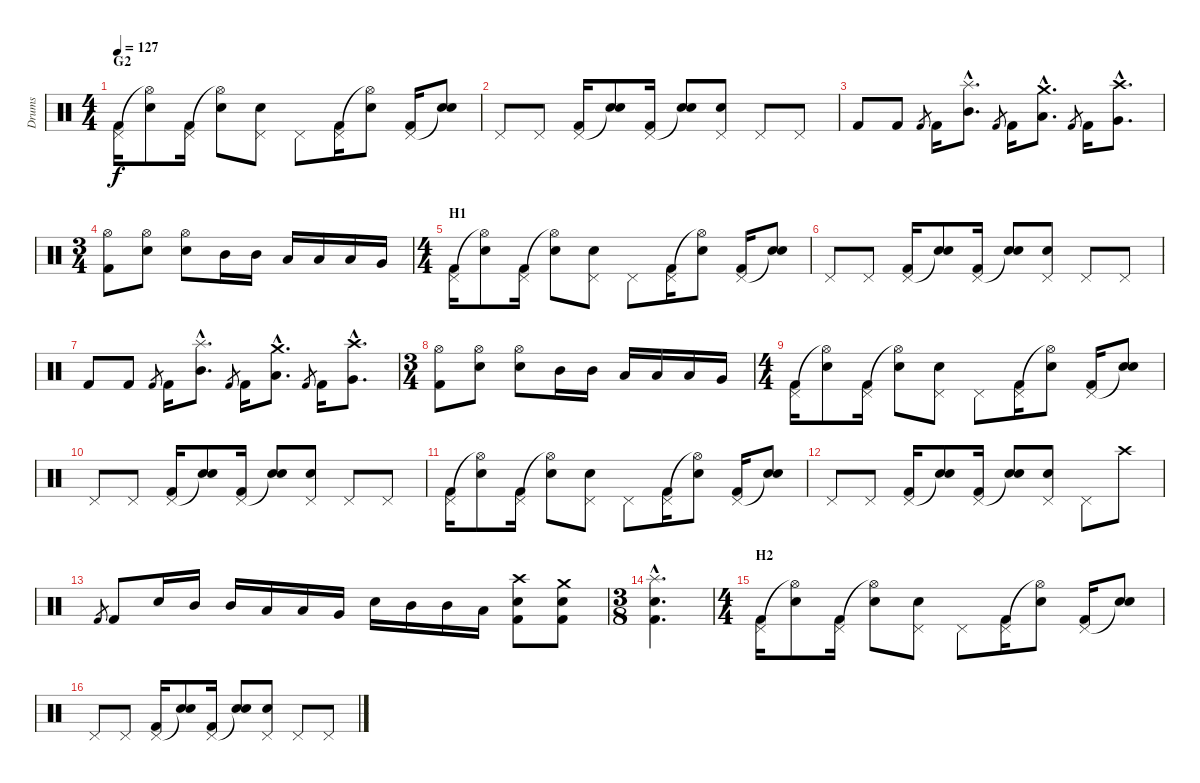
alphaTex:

\track ("Drums" "Drums") {instrument percussion}
\staff {score}
\articulation defaults
\ts (4 4)
\section ("" "G2")
\tempo 127
\clef neutral
\ks c
("Pedal Hi-Hat (hit)" "Kick (hit) 2").16{dy f volume 15} ("Hi-Hat (open)"{t} "Electric Snare (hit)").8 ("Pedal Hi-Hat (hit)" "Kick (hit) 2").16 ("Hi-Hat (open)"{t} "Electric Snare (hit)").8 ("Pedal Hi-Hat (hit)" "Electric Snare (hit)").8 "Pedal Hi-Hat (hit)".8 ("Pedal Hi-Hat (hit)" "Kick (hit) 2").16 ("Hi-Hat (open)"{t} "Electric Snare (hit)").8 ("Pedal Hi-Hat (hit)" "Kick (hit) 2").16 ("Snare (hit)"{t} "Electric Snare (hit)").8 |
"Pedal Hi-Hat (hit)".8 "Pedal Hi-Hat (hit)".8 ("Pedal Hi-Hat (hit)" "Kick (hit) 2").16 ("Snare (hit)"{t} "Electric Snare (hit)").8 ("Pedal Hi-Hat (hit)" "Kick (hit) 2").16 ("Snare (hit)"{t} "Electric Snare (hit)").8 ("Pedal Hi-Hat (hit)" "Electric Snare (hit)").8 "Pedal Hi-Hat (hit)".8 "Pedal Hi-Hat (hit)".8 |
"Kick (hit) 2".8 "Kick (hit) 2".8 "Kick (hit) 2".8{gr} "Kick (hit) 2".16 ("Splash (hit)"{hac} "Mid Tom (hit)"{hac}).8{d} "Kick (hit) 2".8{gr} "Kick (hit) 2".16 ("Crash medium (hit)"{hac} "Low Tom (hit)"{hac}).8{d} "Kick (hit) 2".8{gr} "Kick (hit) 2".16 ("Crash high (hit)"{hac} "Very Low Tom (hit)"{hac}).8{d} |
\ts (3 4)
("Hi-Hat (open)" "Kick (hit) 2").8 ("Hi-Hat (open)" "Electric Snare (hit)").8 ("Hi-Hat (open)" "Electric Snare (hit)").8 "Mid Tom (hit)".16 "Mid Tom (hit)".16 "Low Tom (hit)".16 "Low Tom (hit)".16 "Low Tom (hit)".16 "Very Low Tom (hit)".16 |
\ts (4 4)
\section ("" "H1")
("Pedal Hi-Hat (hit)" "Kick (hit) 2").16 ("Hi-Hat (open)"{t} "Electric Snare (hit)").8 ("Pedal Hi-Hat (hit)" "Kick (hit) 2").16 ("Hi-Hat (open)"{t} "Electric Snare (hit)").8 ("Pedal Hi-Hat (hit)" "Electric Snare (hit)").8 "Pedal Hi-Hat (hit)".8 ("Pedal Hi-Hat (hit)" "Kick (hit) 2").16 ("Hi-Hat (open)"{t} "Electric Snare (hit)").8 ("Pedal Hi-Hat (hit)" "Kick (hit) 2").16 ("Snare (hit)"{t} "Electric Snare (hit)").8 |
"Pedal Hi-Hat (hit)".8 "Pedal Hi-Hat (hit)".8 ("Pedal Hi-Hat (hit)" "Kick (hit) 2").16 ("Snare (hit)"{t} "Electric Snare (hit)").8 ("Pedal Hi-Hat (hit)" "Kick (hit) 2").16 ("Snare (hit)"{t} "Electric Snare (hit)").8 ("Pedal Hi-Hat (hit)" "Electric Snare (hit)").8 "Pedal Hi-Hat (hit)".8 "Pedal Hi-Hat (hit)".8 |
"Kick (hit) 2".8 "Kick (hit) 2".8 "Kick (hit) 2".8{gr} "Kick (hit) 2".16 ("Splash (hit)"{hac} "Mid Tom (hit)"{hac}).8{d} "Kick (hit) 2".8{gr} "Kick (hit) 2".16 ("Crash medium (hit)"{hac} "Low Tom (hit)"{hac}).8{d} "Kick (hit) 2".8{gr} "Kick (hit) 2".16 ("Crash high (hit)"{hac} "Very Low Tom (hit)"{hac}).8{d} |
\ts (3 4)
("Hi-Hat (open)" "Kick (hit) 2").8 ("Hi-Hat (open)" "Electric Snare (hit)").8 ("Hi-Hat (open)" "Electric Snare (hit)").8 "Mid Tom (hit)".16 "Mid Tom (hit)".16 "Low Tom (hit)".16 "Low Tom (hit)".16 "Low Tom (hit)".16 "Very Low Tom (hit)".16 |
\ts (4 4)
("Pedal Hi-Hat (hit)" "Kick (hit) 2").16 ("Hi-Hat (open)"{t} "Electric Snare (hit)").8 ("Pedal Hi-Hat (hit)" "Kick (hit) 2").16 ("Hi-Hat (open)"{t} "Electric Snare (hit)").8 ("Pedal Hi-Hat (hit)" "Electric Snare (hit)").8 "Pedal Hi-Hat (hit)".8 ("Pedal Hi-Hat (hit)" "Kick (hit) 2").16 ("Hi-Hat (open)"{t} "Electric Snare (hit)").8 ("Pedal Hi-Hat (hit)" "Kick (hit) 2").16 ("Snare (hit)"{t} "Electric Snare (hit)").8 |
"Pedal Hi-Hat (hit)".8 "Pedal Hi-Hat (hit)".8 ("Pedal Hi-Hat (hit)" "Kick (hit) 2").16 ("Snare (hit)"{t} "Electric Snare (hit)").8 ("Pedal Hi-Hat (hit)" "Kick (hit) 2").16 ("Snare (hit)"{t} "Electric Snare (hit)").8 ("Pedal Hi-Hat (hit)" "Electric Snare (hit)").8 "Pedal Hi-Hat (hit)".8 "Pedal Hi-Hat (hit)".8 |
("Pedal Hi-Hat (hit)" "Kick (hit) 2").16 ("Hi-Hat (open)"{t} "Electric Snare (hit)").8 ("Pedal Hi-Hat (hit)" "Kick (hit) 2").16 ("Hi-Hat (open)"{t} "Electric Snare (hit)").8 ("Pedal Hi-Hat (hit)" "Electric Snare (hit)").8 "Pedal Hi-Hat (hit)".8 ("Pedal Hi-Hat (hit)" "Kick (hit) 2").16 ("Hi-Hat (open)"{t} "Electric Snare (hit)").8 ("Pedal Hi-Hat (hit)" "Kick (hit) 2").16 ("Snare (hit)"{t} "Electric Snare (hit)").8 |
"Pedal Hi-Hat (hit)".8 "Pedal Hi-Hat (hit)".8 ("Pedal Hi-Hat (hit)" "Kick (hit) 2").16 ("Snare (hit)"{t} "Electric Snare (hit)").8 ("Pedal Hi-Hat (hit)" "Kick (hit) 2").16 ("Snare (hit)"{t} "Electric Snare (hit)").8 ("Pedal Hi-Hat (hit)" "Electric Snare (hit)").8 "Pedal Hi-Hat (hit)".8 "Crash high (hit)".8 |
"Kick (hit) 2".8{gr} "Kick (hit) 2".8 "Electric Snare (hit)".16 "Mid Tom (hit)".16 "Mid Tom (hit)".16 "Low Tom (hit)".16 "Low Tom (hit)".16 "Very Low Tom (hit)".16 "Electric Snare (hit)".16 "Mid Tom (hit)".16 "Mid Tom (hit)".16 "Low Tom (hit)".16 ("Crash high (hit)" "Electric Snare (hit)" "Kick (hit) 2").8 ("Crash medium (hit)" "Electric Snare (hit)" "Kick (hit) 2").8 |
\ts (3 8)
("Splash (hit)"{hac} "Electric Snare (hit)"{hac} "Kick (hit) 2"{hac}).4{d} |
\ts (4 4)
\section ("" "H2")
("Pedal Hi-Hat (hit)" "Kick (hit) 2").16 ("Hi-Hat (open)"{t} "Electric Snare (hit)").8 ("Pedal Hi-Hat (hit)" "Kick (hit) 2").16 ("Hi-Hat (open)"{t} "Electric Snare (hit)").8 ("Pedal Hi-Hat (hit)" "Electric Snare (hit)").8 "Pedal Hi-Hat (hit)".8 ("Pedal Hi-Hat (hit)" "Kick (hit) 2").16 ("Hi-Hat (open)"{t} "Electric Snare (hit)").8 ("Pedal Hi-Hat (hit)" "Kick (hit) 2").16 ("Snare (hit)"{t} "Electric Snare (hit)").8 |
"Pedal Hi-Hat (hit)".8 "Pedal Hi-Hat (hit)".8 ("Pedal Hi-Hat (hit)" "Kick (hit) 2").16 ("Snare (hit)"{t} "Electric Snare (hit)").8 ("Pedal Hi-Hat (hit)" "Kick (hit) 2").16 ("Snare (hit)"{t} "Electric Snare (hit)").8 ("Pedal Hi-Hat (hit)" "Electric Snare (hit)").8 "Pedal Hi-Hat (hit)".8 "Pedal Hi-Hat (hit)".8
